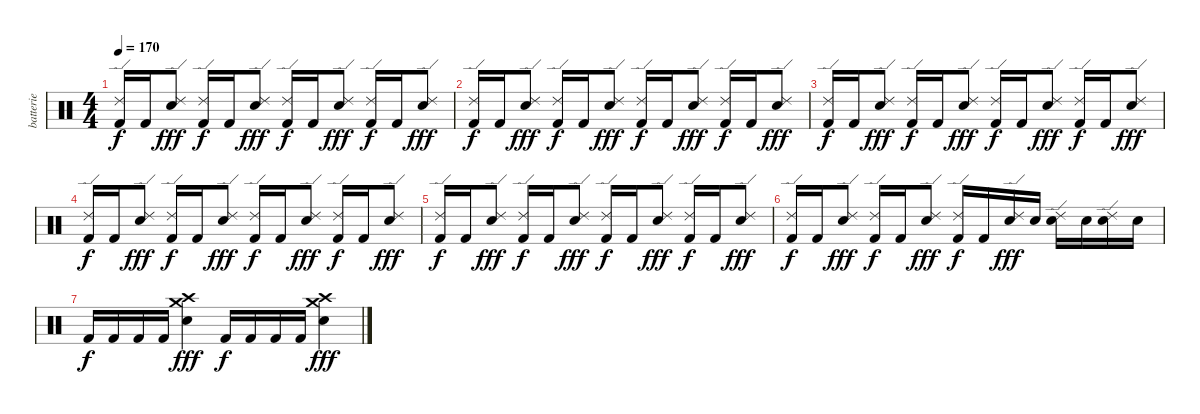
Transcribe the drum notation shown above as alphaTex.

\track ("batterie" "batterie") {instrument percussion}
\staff {score}
\articulation defaults
\ts (4 4)
\tempo 170
\clef neutral
\ks c
("Ride (edge) 2" "Kick (hit) 2").16{dy f} "Kick (hit) 2".16 ("Ride (edge) 2" "Electric Snare (hit)").8{dy fff} ("Ride (edge) 2" "Kick (hit) 2").16{dy f} "Kick (hit) 2".16 ("Ride (edge) 2" "Electric Snare (hit)").8{dy fff} ("Ride (edge) 2" "Kick (hit) 2").16{dy f} "Kick (hit) 2".16 ("Ride (edge) 2" "Electric Snare (hit)").8{dy fff} ("Ride (edge) 2" "Kick (hit) 2").16{dy f} "Kick (hit) 2".16 ("Ride (edge) 2" "Electric Snare (hit)").8{dy fff} |
("Ride (edge) 2" "Kick (hit) 2").16{dy f} "Kick (hit) 2".16 ("Ride (edge) 2" "Electric Snare (hit)").8{dy fff} ("Ride (edge) 2" "Kick (hit) 2").16{dy f} "Kick (hit) 2".16 ("Ride (edge) 2" "Electric Snare (hit)").8{dy fff} ("Ride (edge) 2" "Kick (hit) 2").16{dy f} "Kick (hit) 2".16 ("Ride (edge) 2" "Electric Snare (hit)").8{dy fff} ("Ride (edge) 2" "Kick (hit) 2").16{dy f} "Kick (hit) 2".16 ("Ride (edge) 2" "Electric Snare (hit)").8{dy fff} |
("Ride (edge) 2" "Kick (hit) 2").16{dy f} "Kick (hit) 2".16 ("Ride (edge) 2" "Electric Snare (hit)").8{dy fff} ("Ride (edge) 2" "Kick (hit) 2").16{dy f} "Kick (hit) 2".16 ("Ride (edge) 2" "Electric Snare (hit)").8{dy fff} ("Ride (edge) 2" "Kick (hit) 2").16{dy f} "Kick (hit) 2".16 ("Ride (edge) 2" "Electric Snare (hit)").8{dy fff} ("Ride (edge) 2" "Kick (hit) 2").16{dy f} "Kick (hit) 2".16 ("Ride (edge) 2" "Electric Snare (hit)").8{dy fff} |
("Ride (edge) 2" "Kick (hit) 2").16{dy f} "Kick (hit) 2".16 ("Ride (edge) 2" "Electric Snare (hit)").8{dy fff} ("Ride (edge) 2" "Kick (hit) 2").16{dy f} "Kick (hit) 2".16 ("Ride (edge) 2" "Electric Snare (hit)").8{dy fff} ("Ride (edge) 2" "Kick (hit) 2").16{dy f} "Kick (hit) 2".16 ("Ride (edge) 2" "Electric Snare (hit)").8{dy fff} ("Ride (edge) 2" "Kick (hit) 2").16{dy f} "Kick (hit) 2".16 ("Ride (edge) 2" "Electric Snare (hit)").8{dy fff} |
("Ride (edge) 2" "Kick (hit) 2").16{dy f} "Kick (hit) 2".16 ("Ride (edge) 2" "Electric Snare (hit)").8{dy fff} ("Ride (edge) 2" "Kick (hit) 2").16{dy f} "Kick (hit) 2".16 ("Ride (edge) 2" "Electric Snare (hit)").8{dy fff} ("Ride (edge) 2" "Kick (hit) 2").16{dy f} "Kick (hit) 2".16 ("Ride (edge) 2" "Electric Snare (hit)").8{dy fff} ("Ride (edge) 2" "Kick (hit) 2").16{dy f} "Kick (hit) 2".16 ("Ride (edge) 2" "Electric Snare (hit)").8{dy fff} |
("Ride (edge) 2" "Kick (hit) 2").16{dy f} "Kick (hit) 2".16 ("Ride (edge) 2" "Electric Snare (hit)").8{dy fff} ("Ride (edge) 2" "Kick (hit) 2").16{dy f} "Kick (hit) 2".16 ("Ride (edge) 2" "Electric Snare (hit)").8{dy fff} ("Ride (edge) 2" "Kick (hit) 2").16{dy f} "Kick (hit) 2".16 ("Ride (edge) 2" "Electric Snare (hit)").16{dy fff} "Electric Snare (hit)".16 ("Ride (edge) 2" "Electric Snare (hit)").16 "Electric Snare (hit)".16 ("Ride (edge) 2" "Electric Snare (hit)").16 "Electric Snare (hit)".16 |
"Kick (hit) 2".16{dy f} "Kick (hit) 2".16 "Kick (hit) 2".16 "Kick (hit) 2".16 ("Crash medium (hit)" "Crash high (hit)" "Electric Snare (hit)").4{dy fff} "Kick (hit) 2".16{dy f} "Kick (hit) 2".16 "Kick (hit) 2".16 "Kick (hit) 2".16 ("Crash high (hit)" "Crash medium (hit)" "Electric Snare (hit)").4{dy fff}
